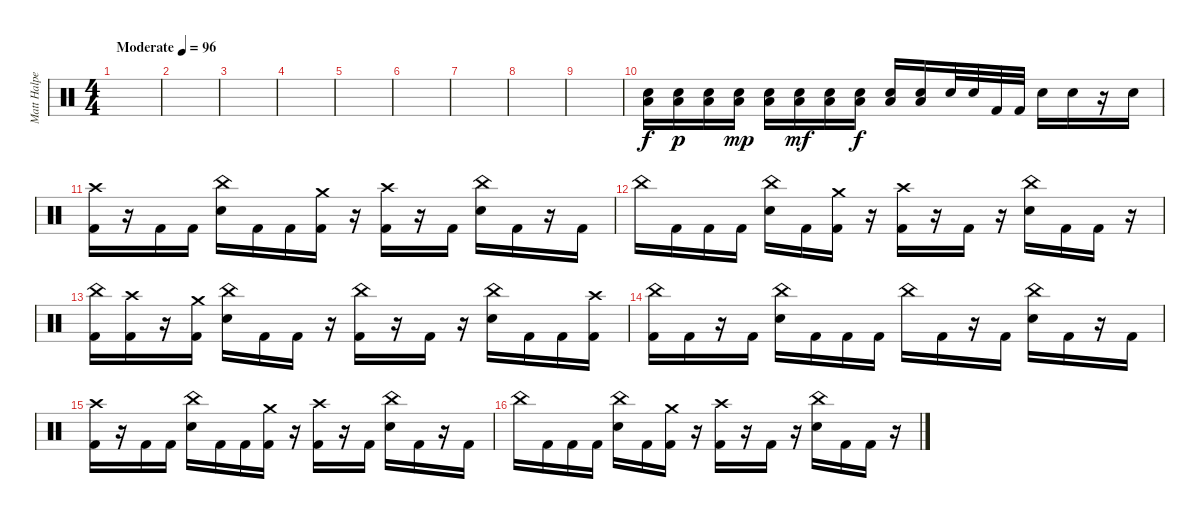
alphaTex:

\track ("Matt Halpern" "Matt Halpe") {instrument percussion}
\staff {score}
\articulation defaults
\ts (4 4)
\tempo (96 "Moderate")
\clef neutral
\ks c
|
|
|
|
|
|
|
|
|
("Low Floor Tom (hit)" "Snare (hit) 2").16 ("Low Floor Tom (hit)" "Snare (hit) 2").16{dy p} ("Low Floor Tom (hit)" "Snare (hit) 2").16 ("Low Floor Tom (hit)" "Snare (hit) 2").16{dy mp} ("Low Floor Tom (hit)" "Snare (hit) 2").16 ("Low Floor Tom (hit)" "Snare (hit) 2").16{dy mf} ("Low Floor Tom (hit)" "Snare (hit) 2").16 ("Low Floor Tom (hit)" "Snare (hit) 2").16{dy f} ("Low Floor Tom (hit)" "Snare (hit) 2").16 ("Low Floor Tom (hit)" "Snare (hit) 2").16 "Snare (hit) 2".32 "Snare (hit) 2".32 "Kick (hit) 2".32 "Kick (hit) 2".32 "Snare (hit) 2".16 "Snare (hit) 2".16 r.16 "Snare (hit) 2".16 |
("Crash high (hit)" "Kick (hit) 2").16 r.16 "Kick (hit) 2".16 "Kick (hit) 2".16 ("China (hit)" "Snare (hit) 2").16 "Kick (hit) 2".16 "Kick (hit) 2".16 ("Crash medium (hit)" "Kick (hit) 2").16 r.16 ("Crash high (hit)" "Kick (hit) 2").16 r.16 "Kick (hit) 2".16 ("China (hit)" "Snare (hit) 2").16 "Kick (hit) 2".16 r.16 "Kick (hit) 2".16 |
"China (hit)".16 "Kick (hit) 2".16 "Kick (hit) 2".16 "Kick (hit) 2".16 ("China (hit)" "Snare (hit) 2").16 "Kick (hit) 2".16 ("Crash medium (hit)" "Kick (hit) 2").16 r.16 ("Crash high (hit)" "Kick (hit) 2").16 r.16 "Kick (hit) 2".16 r.16 ("China (hit)" "Snare (hit) 2").16 "Kick (hit) 2".16 "Kick (hit) 2".16 r.16 |
("China (hit)" "Kick (hit) 2").16 ("Crash high (hit)" "Kick (hit) 2").16 r.16 ("Crash medium (hit)" "Kick (hit) 2").16 ("China (hit)" "Snare (hit) 2").16 "Kick (hit) 2".16 "Kick (hit) 2".16 r.16 ("China (hit)" "Kick (hit) 2").16 r.16 "Kick (hit) 2".16 r.16 ("China (hit)" "Snare (hit) 2").16 "Kick (hit) 2".16 "Kick (hit) 2".16 ("Crash high (hit)" "Kick (hit) 2").16 |
("China (hit)" "Kick (hit) 2").16 "Kick (hit) 2".16 r.16 "Kick (hit) 2".16 ("China (hit)" "Snare (hit) 2").16 "Kick (hit) 2".16 "Kick (hit) 2".16 "Kick (hit) 2".16 "China (hit)".16 "Kick (hit) 2".16 r.16 "Kick (hit) 2".16 ("China (hit)" "Snare (hit) 2").16 "Kick (hit) 2".16 r.16 "Kick (hit) 2".16 |
("Crash high (hit)" "Kick (hit) 2").16 r.16 "Kick (hit) 2".16 "Kick (hit) 2".16 ("China (hit)" "Snare (hit) 2").16 "Kick (hit) 2".16 "Kick (hit) 2".16 ("Crash medium (hit)" "Kick (hit) 2").16 r.16 ("Crash high (hit)" "Kick (hit) 2").16 r.16 "Kick (hit) 2".16 ("China (hit)" "Snare (hit) 2").16 "Kick (hit) 2".16 r.16 "Kick (hit) 2".16 |
"China (hit)".16 "Kick (hit) 2".16 "Kick (hit) 2".16 "Kick (hit) 2".16 ("China (hit)" "Snare (hit) 2").16 "Kick (hit) 2".16 ("Crash medium (hit)" "Kick (hit) 2").16 r.16 ("Crash high (hit)" "Kick (hit) 2").16 r.16 "Kick (hit) 2".16 r.16 ("China (hit)" "Snare (hit) 2").16 "Kick (hit) 2".16 "Kick (hit) 2".16 r.16
